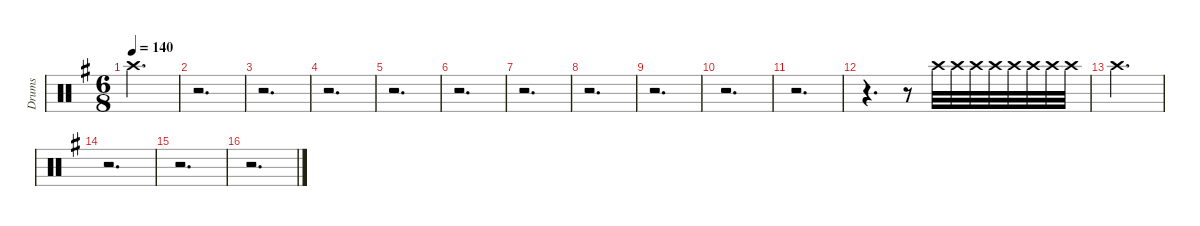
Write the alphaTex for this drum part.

\defaultSystemsLayout 8
\hideDynamics
\bracketExtendMode groupsimilarinstruments
\firstSystemTrackNameMode fullname
\otherSystemsTrackNameOrientation horizontal
\track ("Drums" "drm.") {defaultSystemsLayout 4 instrument percussion}
\staff {score}
\articulation defaults
\ts (6 8)
\tempo 140
\clef neutral
\ks g "Crash high (hit)"{acc forcenatural}.2{d dy ff beam Down}
|
r.2{d beam Down} |
r.2{d beam Down} |
r.2{d beam Down} |
r.2{d beam Down} |
r.2{d beam Down} |
r.2{d beam Down} |
r.2{d beam Down} |
r.2{d beam Down} |
r.2{d beam Down} |
r.2{d beam Down} |
r.4{d beam Down} r.8{beam Down} "Crash high (hit)"{acc forcenatural}.32{dy pp beam Down} "Crash high (hit)"{acc forcenatural}.32{beam Down} "Crash high (hit)"{acc forcenatural}.32{dy p beam Down} "Crash high (hit)"{acc forcenatural}.32{beam Down} "Crash high (hit)"{acc forcenatural}.32{dy mp beam Down} "Crash high (hit)"{acc forcenatural}.32{beam Down} "Crash high (hit)"{acc forcenatural}.32{dy mf beam Down} "Crash high (hit)"{acc forcenatural}.32{beam Down} |
"Crash high (hit)"{acc forcenatural}.2{d dy ff beam Down} |
r.2{d beam Down} |
r.2{d beam Down} |
r.2{d beam Down}
